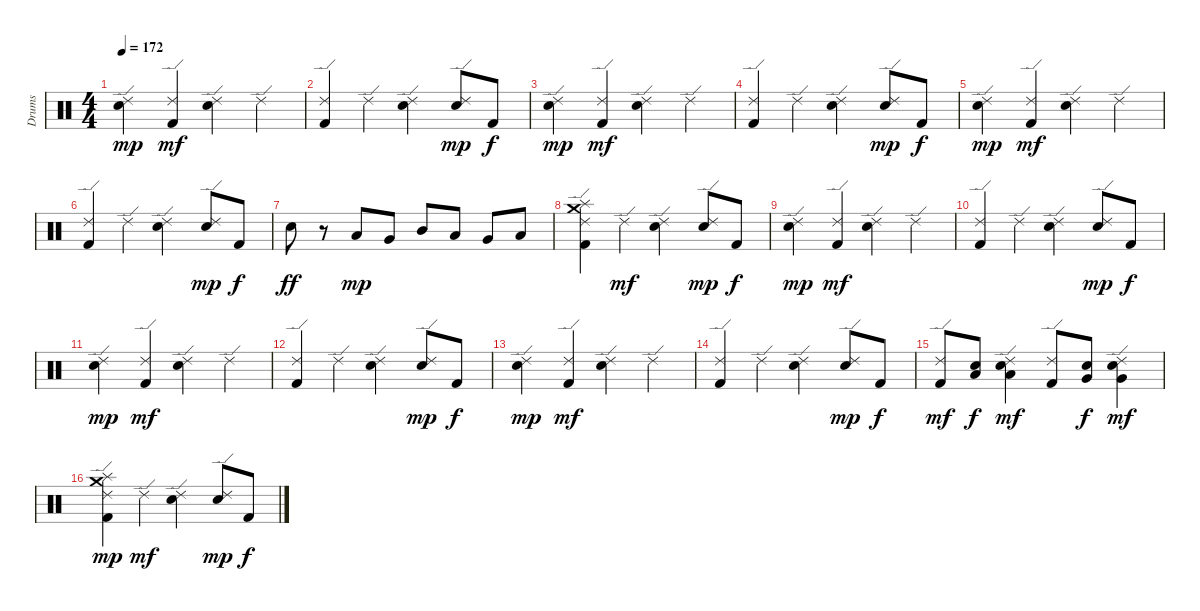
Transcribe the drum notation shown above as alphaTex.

\track ("Drums" "Drums") {instrument percussion}
\staff {score}
\articulation defaults
\ts (4 4)
\tempo 172
\clef neutral
\ks c
("Ride (edge) 2" "Electric Snare (hit)").4{dy mp} ("Ride (edge) 2" "Kick (hit) 2").4{dy mf} ("Ride (edge) 2" "Electric Snare (hit)").4 "Ride (edge) 2".4 |
("Ride (edge) 2" "Kick (hit) 2").4 "Ride (edge) 2".4 ("Ride (edge) 2" "Electric Snare (hit)").4 ("Ride (edge) 2" "Electric Snare (hit)").8{dy mp} "Kick (hit) 2".8{dy f} |
("Ride (edge) 2" "Electric Snare (hit)").4{dy mp} ("Ride (edge) 2" "Kick (hit) 2").4{dy mf} ("Ride (edge) 2" "Electric Snare (hit)").4 "Ride (edge) 2".4 |
("Ride (edge) 2" "Kick (hit) 2").4 "Ride (edge) 2".4 ("Ride (edge) 2" "Electric Snare (hit)").4 ("Ride (edge) 2" "Electric Snare (hit)").8{dy mp} "Kick (hit) 2".8{dy f} |
("Ride (edge) 2" "Electric Snare (hit)").4{dy mp} ("Ride (edge) 2" "Kick (hit) 2").4{dy mf} ("Ride (edge) 2" "Electric Snare (hit)").4 "Ride (edge) 2".4 |
("Ride (edge) 2" "Kick (hit) 2").4 "Ride (edge) 2".4 ("Ride (edge) 2" "Electric Snare (hit)").4 ("Ride (edge) 2" "Electric Snare (hit)").8{dy mp} "Kick (hit) 2".8{dy f} |
"Electric Snare (hit)".8{dy ff} r.8 "Low Tom (hit)".8{dy mp} "Very Low Tom (hit)".8 "Mid Tom (hit)".8 "Low Tom (hit)".8 "Very Low Tom (hit)".8 "Low Floor Tom (hit)".8 |
("Ride (edge) 2" "Splash (hit)" "Crash medium (hit)" "Kick (hit) 2").4 "Ride (edge) 2".4{dy mf} ("Ride (edge) 2" "Electric Snare (hit)").4 ("Ride (edge) 2" "Electric Snare (hit)").8{dy mp} "Kick (hit) 2".8{dy f} |
("Ride (edge) 2" "Electric Snare (hit)").4{dy mp} ("Ride (edge) 2" "Kick (hit) 2").4{dy mf} ("Ride (edge) 2" "Electric Snare (hit)").4 "Ride (edge) 2".4 |
("Ride (edge) 2" "Kick (hit) 2").4 "Ride (edge) 2".4 ("Ride (edge) 2" "Electric Snare (hit)").4 ("Ride (edge) 2" "Electric Snare (hit)").8{dy mp} "Kick (hit) 2".8{dy f} |
("Ride (edge) 2" "Electric Snare (hit)").4{dy mp} ("Ride (edge) 2" "Kick (hit) 2").4{dy mf} ("Ride (edge) 2" "Electric Snare (hit)").4 "Ride (edge) 2".4 |
("Ride (edge) 2" "Kick (hit) 2").4 "Ride (edge) 2".4 ("Ride (edge) 2" "Electric Snare (hit)").4 ("Ride (edge) 2" "Electric Snare (hit)").8{dy mp} "Kick (hit) 2".8{dy f} |
("Ride (edge) 2" "Electric Snare (hit)").4{dy mp} ("Ride (edge) 2" "Kick (hit) 2").4{dy mf} ("Ride (edge) 2" "Electric Snare (hit)").4 "Ride (edge) 2".4 |
("Ride (edge) 2" "Kick (hit) 2").4 "Ride (edge) 2".4 ("Ride (edge) 2" "Electric Snare (hit)").4 ("Ride (edge) 2" "Electric Snare (hit)").8{dy mp} "Kick (hit) 2".8{dy f} |
("Ride (edge) 2" "Kick (hit) 2").8{dy mf} ("Electric Snare (hit)" "Low Tom (hit)").8{dy f} ("Ride (edge) 2" "Electric Snare (hit)" "Low Tom (hit)").4{dy mf} ("Ride (edge) 2" "Kick (hit) 2").8 ("Electric Snare (hit)" "Very Low Tom (hit)").8{dy f} ("Ride (edge) 2" "Electric Snare (hit)" "Very Low Tom (hit)").4{dy mf} |
("Ride (edge) 2" "Splash (hit)" "Crash medium (hit)" "Kick (hit) 2").4{dy mp} "Ride (edge) 2".4{dy mf} ("Ride (edge) 2" "Electric Snare (hit)").4 ("Ride (edge) 2" "Electric Snare (hit)").8{dy mp} "Kick (hit) 2".8{dy f}
